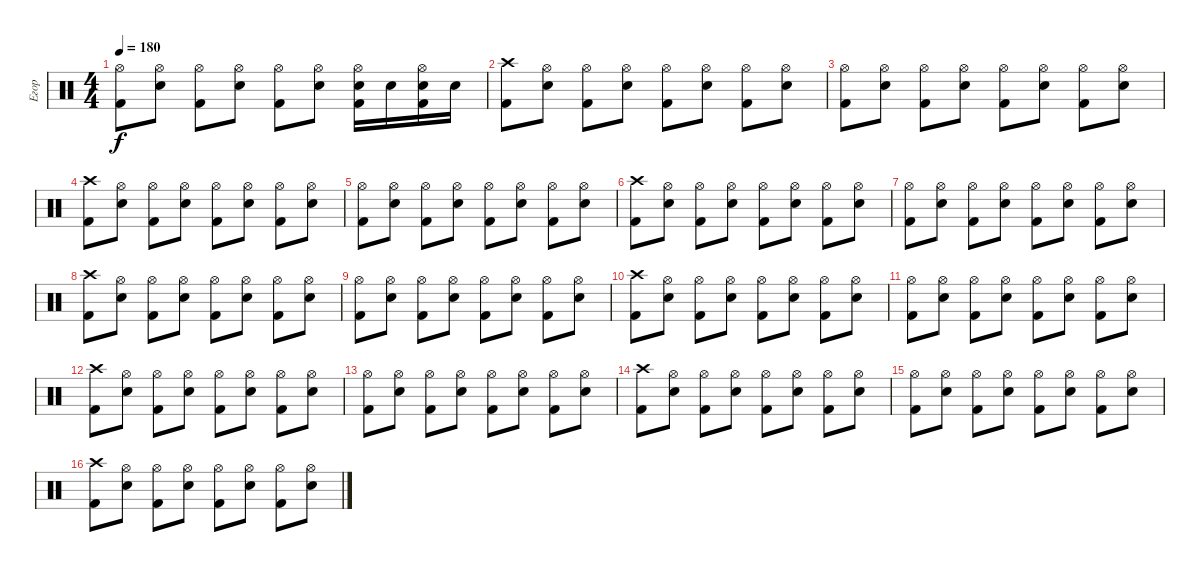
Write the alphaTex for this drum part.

\track ("Егор" "Егор") {instrument percussion}
\staff {score}
\articulation defaults
\ts (4 4)
\tempo 180
\clef neutral
\ks c
("Hi-Hat (open)" "Kick (hit) 2").8{dy f} ("Hi-Hat (open)" "Electric Snare (hit)").8 ("Hi-Hat (open)" "Kick (hit) 2").8 ("Hi-Hat (open)" "Electric Snare (hit)").8 ("Hi-Hat (open)" "Kick (hit) 2").8 ("Hi-Hat (open)" "Electric Snare (hit)").8 ("Hi-Hat (open)" "Electric Snare (hit)" "Kick (hit) 2").16 "Electric Snare (hit)".16 ("Hi-Hat (open)" "Electric Snare (hit)" "Kick (hit) 2").16 "Electric Snare (hit)".16 |
("Crash high (hit)" "Kick (hit) 2").8 ("Hi-Hat (open)" "Electric Snare (hit)").8 ("Hi-Hat (open)" "Kick (hit) 2").8 ("Hi-Hat (open)" "Electric Snare (hit)").8 ("Hi-Hat (open)" "Kick (hit) 2").8 ("Hi-Hat (open)" "Electric Snare (hit)").8 ("Hi-Hat (open)" "Kick (hit) 2").8 ("Hi-Hat (open)" "Electric Snare (hit)").8 |
("Hi-Hat (open)" "Kick (hit) 2").8 ("Hi-Hat (open)" "Electric Snare (hit)").8 ("Hi-Hat (open)" "Kick (hit) 2").8 ("Hi-Hat (open)" "Electric Snare (hit)").8 ("Hi-Hat (open)" "Kick (hit) 2").8 ("Hi-Hat (open)" "Electric Snare (hit)").8 ("Hi-Hat (open)" "Kick (hit) 2").8 ("Hi-Hat (open)" "Electric Snare (hit)").8 |
("Crash high (hit)" "Kick (hit) 2").8 ("Hi-Hat (open)" "Electric Snare (hit)").8 ("Hi-Hat (open)" "Kick (hit) 2").8 ("Hi-Hat (open)" "Electric Snare (hit)").8 ("Hi-Hat (open)" "Kick (hit) 2").8 ("Hi-Hat (open)" "Electric Snare (hit)").8 ("Hi-Hat (open)" "Kick (hit) 2").8 ("Hi-Hat (open)" "Electric Snare (hit)").8 |
("Hi-Hat (open)" "Kick (hit) 2").8 ("Hi-Hat (open)" "Electric Snare (hit)").8 ("Hi-Hat (open)" "Kick (hit) 2").8 ("Hi-Hat (open)" "Electric Snare (hit)").8 ("Hi-Hat (open)" "Kick (hit) 2").8 ("Hi-Hat (open)" "Electric Snare (hit)").8 ("Hi-Hat (open)" "Kick (hit) 2").8 ("Hi-Hat (open)" "Electric Snare (hit)").8 |
("Crash high (hit)" "Kick (hit) 2").8 ("Hi-Hat (open)" "Electric Snare (hit)").8 ("Hi-Hat (open)" "Kick (hit) 2").8 ("Hi-Hat (open)" "Electric Snare (hit)").8 ("Hi-Hat (open)" "Kick (hit) 2").8 ("Hi-Hat (open)" "Electric Snare (hit)").8 ("Hi-Hat (open)" "Kick (hit) 2").8 ("Hi-Hat (open)" "Electric Snare (hit)").8 |
("Hi-Hat (open)" "Kick (hit) 2").8 ("Hi-Hat (open)" "Electric Snare (hit)").8 ("Hi-Hat (open)" "Kick (hit) 2").8 ("Hi-Hat (open)" "Electric Snare (hit)").8 ("Hi-Hat (open)" "Kick (hit) 2").8 ("Hi-Hat (open)" "Electric Snare (hit)").8 ("Hi-Hat (open)" "Kick (hit) 2").8 ("Hi-Hat (open)" "Electric Snare (hit)").8 |
("Crash high (hit)" "Kick (hit) 2").8 ("Hi-Hat (open)" "Electric Snare (hit)").8 ("Hi-Hat (open)" "Kick (hit) 2").8 ("Hi-Hat (open)" "Electric Snare (hit)").8 ("Hi-Hat (open)" "Kick (hit) 2").8 ("Hi-Hat (open)" "Electric Snare (hit)").8 ("Hi-Hat (open)" "Kick (hit) 2").8 ("Hi-Hat (open)" "Electric Snare (hit)").8 |
("Hi-Hat (open)" "Kick (hit) 2").8 ("Hi-Hat (open)" "Electric Snare (hit)").8 ("Hi-Hat (open)" "Kick (hit) 2").8 ("Hi-Hat (open)" "Electric Snare (hit)").8 ("Hi-Hat (open)" "Kick (hit) 2").8 ("Hi-Hat (open)" "Electric Snare (hit)").8 ("Hi-Hat (open)" "Kick (hit) 2").8 ("Hi-Hat (open)" "Electric Snare (hit)").8 |
("Crash high (hit)" "Kick (hit) 2").8 ("Hi-Hat (open)" "Electric Snare (hit)").8 ("Hi-Hat (open)" "Kick (hit) 2").8 ("Hi-Hat (open)" "Electric Snare (hit)").8 ("Hi-Hat (open)" "Kick (hit) 2").8 ("Hi-Hat (open)" "Electric Snare (hit)").8 ("Hi-Hat (open)" "Kick (hit) 2").8 ("Hi-Hat (open)" "Electric Snare (hit)").8 |
("Hi-Hat (open)" "Kick (hit) 2").8 ("Hi-Hat (open)" "Electric Snare (hit)").8 ("Hi-Hat (open)" "Kick (hit) 2").8 ("Hi-Hat (open)" "Electric Snare (hit)").8 ("Hi-Hat (open)" "Kick (hit) 2").8 ("Hi-Hat (open)" "Electric Snare (hit)").8 ("Hi-Hat (open)" "Kick (hit) 2").8 ("Hi-Hat (open)" "Electric Snare (hit)").8 |
("Crash high (hit)" "Kick (hit) 2").8 ("Hi-Hat (open)" "Electric Snare (hit)").8 ("Hi-Hat (open)" "Kick (hit) 2").8 ("Hi-Hat (open)" "Electric Snare (hit)").8 ("Hi-Hat (open)" "Kick (hit) 2").8 ("Hi-Hat (open)" "Electric Snare (hit)").8 ("Hi-Hat (open)" "Kick (hit) 2").8 ("Hi-Hat (open)" "Electric Snare (hit)").8 |
("Hi-Hat (open)" "Kick (hit) 2").8 ("Hi-Hat (open)" "Electric Snare (hit)").8 ("Hi-Hat (open)" "Kick (hit) 2").8 ("Hi-Hat (open)" "Electric Snare (hit)").8 ("Hi-Hat (open)" "Kick (hit) 2").8 ("Hi-Hat (open)" "Electric Snare (hit)").8 ("Hi-Hat (open)" "Kick (hit) 2").8 ("Hi-Hat (open)" "Electric Snare (hit)").8 |
("Crash high (hit)" "Kick (hit) 2").8 ("Hi-Hat (open)" "Electric Snare (hit)").8 ("Hi-Hat (open)" "Kick (hit) 2").8 ("Hi-Hat (open)" "Electric Snare (hit)").8 ("Hi-Hat (open)" "Kick (hit) 2").8 ("Hi-Hat (open)" "Electric Snare (hit)").8 ("Hi-Hat (open)" "Kick (hit) 2").8 ("Hi-Hat (open)" "Electric Snare (hit)").8 |
("Hi-Hat (open)" "Kick (hit) 2").8 ("Hi-Hat (open)" "Electric Snare (hit)").8 ("Hi-Hat (open)" "Kick (hit) 2").8 ("Hi-Hat (open)" "Electric Snare (hit)").8 ("Hi-Hat (open)" "Kick (hit) 2").8 ("Hi-Hat (open)" "Electric Snare (hit)").8 ("Hi-Hat (open)" "Kick (hit) 2").8 ("Hi-Hat (open)" "Electric Snare (hit)").8 |
("Crash high (hit)" "Kick (hit) 2").8 ("Hi-Hat (open)" "Electric Snare (hit)").8 ("Hi-Hat (open)" "Kick (hit) 2").8 ("Hi-Hat (open)" "Electric Snare (hit)").8 ("Hi-Hat (open)" "Kick (hit) 2").8 ("Hi-Hat (open)" "Electric Snare (hit)").8 ("Hi-Hat (open)" "Kick (hit) 2").8 ("Hi-Hat (open)" "Electric Snare (hit)").8
